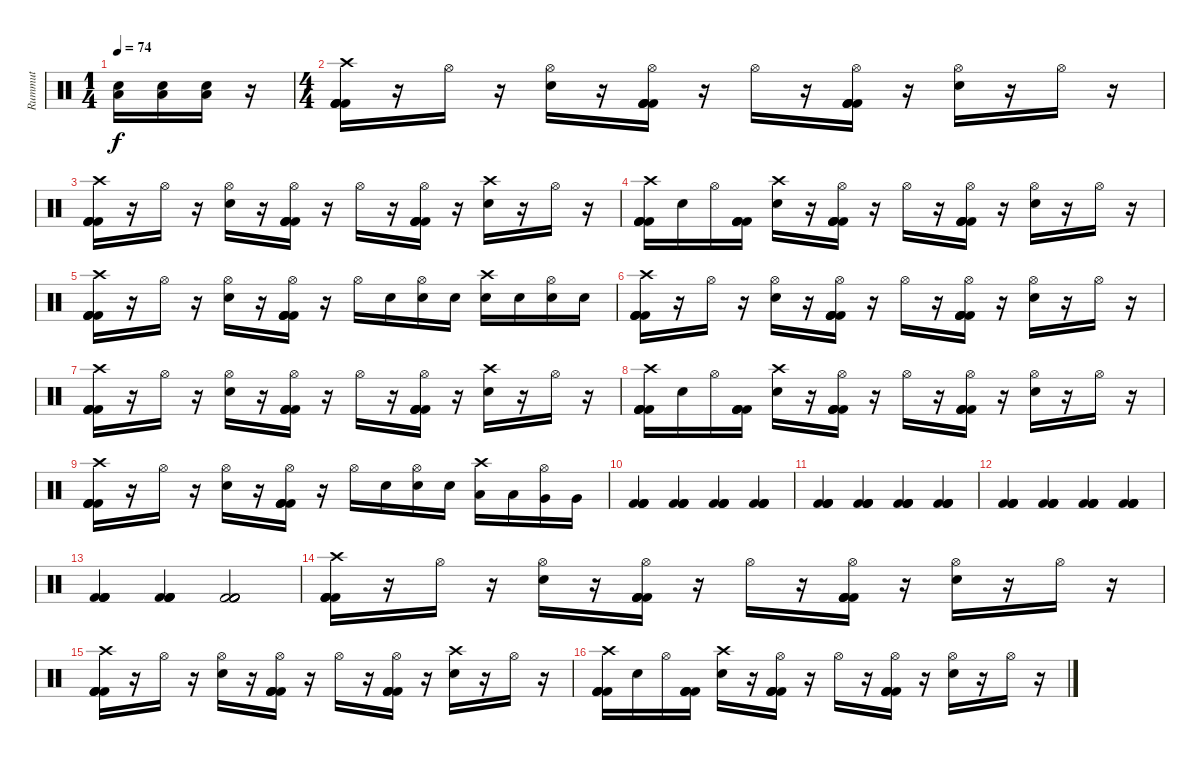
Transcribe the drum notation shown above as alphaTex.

\track ("Rummut" "Rummut") {instrument percussion}
\staff {score}
\articulation defaults
\ts (1 4)
\tempo 74
\clef neutral
\ks c
("Electric Snare (hit)" "Low Tom (hit)").16{dy f} ("Electric Snare (hit)" "Low Tom (hit)").16 ("Electric Snare (hit)" "Low Tom (hit)").16 r.16 |
\ts (4 4)
("Crash high (hit)" "Kick (hit) 2" "Kick (hit) 2" "Kick (hit) 2" "Kick (hit) 2").16 r.16 "Hi-Hat (open)".16 r.16 ("Hi-Hat (open)" "Electric Snare (hit)").16 r.16 ("Hi-Hat (open)" "Kick (hit) 2" "Kick (hit) 2" "Kick (hit) 2" "Kick (hit) 2").16 r.16 "Hi-Hat (open)".16 r.16 ("Hi-Hat (open)" "Kick (hit) 2" "Kick (hit) 2" "Kick (hit) 2" "Kick (hit) 2").16 r.16 ("Hi-Hat (open)" "Electric Snare (hit)").16 r.16 "Hi-Hat (open)".16 r.16 |
("Crash high (hit)" "Kick (hit) 2" "Kick (hit) 2" "Kick (hit) 2" "Kick (hit) 2").16 r.16 "Hi-Hat (open)".16 r.16 ("Hi-Hat (open)" "Electric Snare (hit)").16 r.16 ("Hi-Hat (open)" "Kick (hit) 2" "Kick (hit) 2" "Kick (hit) 2" "Kick (hit) 2").16 r.16 "Hi-Hat (open)".16 r.16 ("Hi-Hat (open)" "Kick (hit) 2" "Kick (hit) 2" "Kick (hit) 2" "Kick (hit) 2").16 r.16 ("Crash high (hit)" "Electric Snare (hit)").16 r.16 "Hi-Hat (open)".16 r.16 |
("Crash high (hit)" "Kick (hit) 2" "Kick (hit) 2" "Kick (hit) 2" "Kick (hit) 2").16 "Electric Snare (hit)".16 "Hi-Hat (open)".16 ("Kick (hit) 2" "Kick (hit) 2" "Kick (hit) 2" "Kick (hit) 2").16 ("Crash high (hit)" "Electric Snare (hit)").16 r.16 ("Hi-Hat (open)" "Kick (hit) 2" "Kick (hit) 2" "Kick (hit) 2" "Kick (hit) 2").16 r.16 "Hi-Hat (open)".16 r.16 ("Hi-Hat (open)" "Kick (hit) 2" "Kick (hit) 2" "Kick (hit) 2" "Kick (hit) 2").16 r.16 ("Hi-Hat (open)" "Electric Snare (hit)").16 r.16 "Hi-Hat (open)".16 r.16 |
("Crash high (hit)" "Kick (hit) 2" "Kick (hit) 2" "Kick (hit) 2" "Kick (hit) 2").16 r.16 "Hi-Hat (open)".16 r.16 ("Hi-Hat (open)" "Electric Snare (hit)").16 r.16 ("Hi-Hat (open)" "Kick (hit) 2" "Kick (hit) 2" "Kick (hit) 2" "Kick (hit) 2").16 r.16 "Hi-Hat (open)".16 "Electric Snare (hit)".16 ("Hi-Hat (open)" "Electric Snare (hit)").16 "Electric Snare (hit)".16 ("Crash high (hit)" "Electric Snare (hit)").16 "Electric Snare (hit)".16 ("Hi-Hat (open)" "Electric Snare (hit)").16 "Electric Snare (hit)".16 |
("Crash high (hit)" "Kick (hit) 2" "Kick (hit) 2" "Kick (hit) 2" "Kick (hit) 2").16 r.16 "Hi-Hat (open)".16 r.16 ("Hi-Hat (open)" "Electric Snare (hit)").16 r.16 ("Hi-Hat (open)" "Kick (hit) 2" "Kick (hit) 2" "Kick (hit) 2" "Kick (hit) 2").16 r.16 "Hi-Hat (open)".16 r.16 ("Hi-Hat (open)" "Kick (hit) 2" "Kick (hit) 2" "Kick (hit) 2" "Kick (hit) 2").16 r.16 ("Hi-Hat (open)" "Electric Snare (hit)").16 r.16 "Hi-Hat (open)".16 r.16 |
("Crash high (hit)" "Kick (hit) 2" "Kick (hit) 2" "Kick (hit) 2" "Kick (hit) 2").16 r.16 "Hi-Hat (open)".16 r.16 ("Hi-Hat (open)" "Electric Snare (hit)").16 r.16 ("Hi-Hat (open)" "Kick (hit) 2" "Kick (hit) 2" "Kick (hit) 2" "Kick (hit) 2").16 r.16 "Hi-Hat (open)".16 r.16 ("Hi-Hat (open)" "Kick (hit) 2" "Kick (hit) 2" "Kick (hit) 2" "Kick (hit) 2").16 r.16 ("Crash high (hit)" "Electric Snare (hit)").16 r.16 "Hi-Hat (open)".16 r.16 |
("Crash high (hit)" "Kick (hit) 2" "Kick (hit) 2" "Kick (hit) 2" "Kick (hit) 2").16 "Electric Snare (hit)".16 "Hi-Hat (open)".16 ("Kick (hit) 2" "Kick (hit) 2" "Kick (hit) 2" "Kick (hit) 2").16 ("Crash high (hit)" "Electric Snare (hit)").16 r.16 ("Hi-Hat (open)" "Kick (hit) 2" "Kick (hit) 2" "Kick (hit) 2" "Kick (hit) 2").16 r.16 "Hi-Hat (open)".16 r.16 ("Hi-Hat (open)" "Kick (hit) 2" "Kick (hit) 2" "Kick (hit) 2" "Kick (hit) 2").16 r.16 ("Hi-Hat (open)" "Electric Snare (hit)").16 r.16 "Hi-Hat (open)".16 r.16 |
("Crash high (hit)" "Kick (hit) 2" "Kick (hit) 2" "Kick (hit) 2" "Kick (hit) 2").16 r.16 "Hi-Hat (open)".16 r.16 ("Hi-Hat (open)" "Electric Snare (hit)").16 r.16 ("Hi-Hat (open)" "Kick (hit) 2" "Kick (hit) 2" "Kick (hit) 2" "Kick (hit) 2").16 r.16 "Hi-Hat (open)".16 "Electric Snare (hit)".16 ("Hi-Hat (open)" "Electric Snare (hit)").16 "Electric Snare (hit)".16 ("Crash high (hit)" "Low Tom (hit)").16 "Low Tom (hit)".16 ("Hi-Hat (open)" "Very Low Tom (hit)").16 "Very Low Tom (hit)".16 |
("Kick (hit) 2" "Kick (hit) 2" "Kick (hit) 2" "Kick (hit) 2").4 ("Kick (hit) 2" "Kick (hit) 2" "Kick (hit) 2" "Kick (hit) 2").4 ("Kick (hit) 2" "Kick (hit) 2" "Kick (hit) 2" "Kick (hit) 2").4 ("Kick (hit) 2" "Kick (hit) 2" "Kick (hit) 2" "Kick (hit) 2").4 |
("Kick (hit) 2" "Kick (hit) 2" "Kick (hit) 2" "Kick (hit) 2").4 ("Kick (hit) 2" "Kick (hit) 2" "Kick (hit) 2" "Kick (hit) 2").4 ("Kick (hit) 2" "Kick (hit) 2" "Kick (hit) 2" "Kick (hit) 2").4 ("Kick (hit) 2" "Kick (hit) 2" "Kick (hit) 2" "Kick (hit) 2").4 |
("Kick (hit) 2" "Kick (hit) 2" "Kick (hit) 2" "Kick (hit) 2").4 ("Kick (hit) 2" "Kick (hit) 2" "Kick (hit) 2" "Kick (hit) 2").4 ("Kick (hit) 2" "Kick (hit) 2" "Kick (hit) 2" "Kick (hit) 2").4 ("Kick (hit) 2" "Kick (hit) 2" "Kick (hit) 2" "Kick (hit) 2").4 |
("Kick (hit) 2" "Kick (hit) 2" "Kick (hit) 2" "Kick (hit) 2").4 ("Kick (hit) 2" "Kick (hit) 2" "Kick (hit) 2" "Kick (hit) 2").4 ("Kick (hit) 2" "Kick (hit) 2" "Kick (hit) 2" "Kick (hit) 2").2 |
("Crash high (hit)" "Kick (hit) 2" "Kick (hit) 2" "Kick (hit) 2" "Kick (hit) 2").16 r.16 "Hi-Hat (open)".16 r.16 ("Hi-Hat (open)" "Electric Snare (hit)").16 r.16 ("Hi-Hat (open)" "Kick (hit) 2" "Kick (hit) 2" "Kick (hit) 2" "Kick (hit) 2").16 r.16 "Hi-Hat (open)".16 r.16 ("Hi-Hat (open)" "Kick (hit) 2" "Kick (hit) 2" "Kick (hit) 2" "Kick (hit) 2").16 r.16 ("Hi-Hat (open)" "Electric Snare (hit)").16 r.16 "Hi-Hat (open)".16 r.16 |
("Crash high (hit)" "Kick (hit) 2" "Kick (hit) 2" "Kick (hit) 2" "Kick (hit) 2").16 r.16 "Hi-Hat (open)".16 r.16 ("Hi-Hat (open)" "Electric Snare (hit)").16 r.16 ("Hi-Hat (open)" "Kick (hit) 2" "Kick (hit) 2" "Kick (hit) 2" "Kick (hit) 2").16 r.16 "Hi-Hat (open)".16 r.16 ("Hi-Hat (open)" "Kick (hit) 2" "Kick (hit) 2" "Kick (hit) 2" "Kick (hit) 2").16 r.16 ("Crash high (hit)" "Electric Snare (hit)").16 r.16 "Hi-Hat (open)".16 r.16 |
("Crash high (hit)" "Kick (hit) 2" "Kick (hit) 2" "Kick (hit) 2" "Kick (hit) 2").16 "Electric Snare (hit)".16 "Hi-Hat (open)".16 ("Kick (hit) 2" "Kick (hit) 2" "Kick (hit) 2" "Kick (hit) 2").16 ("Crash high (hit)" "Electric Snare (hit)").16 r.16 ("Hi-Hat (open)" "Kick (hit) 2" "Kick (hit) 2" "Kick (hit) 2" "Kick (hit) 2").16 r.16 "Hi-Hat (open)".16 r.16 ("Hi-Hat (open)" "Kick (hit) 2" "Kick (hit) 2" "Kick (hit) 2" "Kick (hit) 2").16 r.16 ("Hi-Hat (open)" "Electric Snare (hit)").16 r.16 "Hi-Hat (open)".16 r.16
